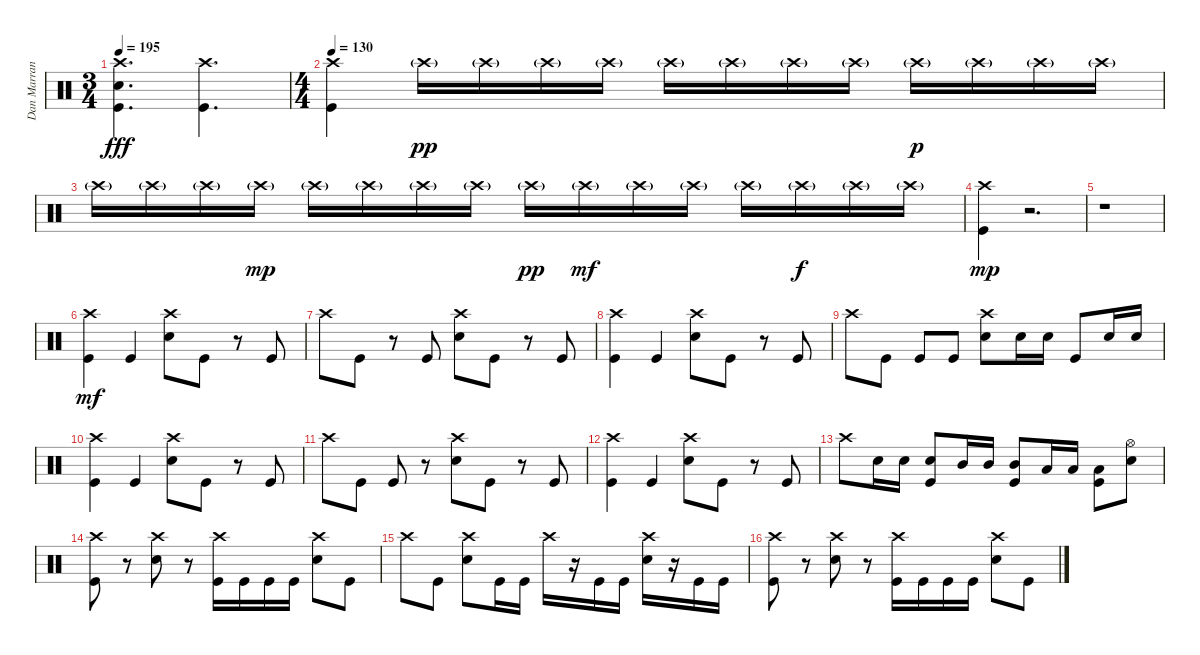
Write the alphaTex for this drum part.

\track ("Dan Marranca" "Dan Marran") {instrument percussion}
\staff {score}
\articulation defaults
\ts (3 4)
\tempo 195
\clef neutral
\ks c
("Crash high (hit)" "Electric Snare (hit)" "Kick (hit)").4{d dy fff} ("Crash high (hit)" "Kick (hit)").4{d} |
\ts (4 4)
\tempo 130
("Crash high (hit)" "Kick (hit)").4 "Crash high (hit)"{g}.16{dy pp} "Crash high (hit)"{g}.16 "Crash high (hit)"{g}.16 "Crash high (hit)"{g}.16 "Crash high (hit)"{g}.16 "Crash high (hit)"{g}.16 "Crash high (hit)"{g}.16 "Crash high (hit)"{g}.16 "Crash high (hit)"{g}.16{dy p} "Crash high (hit)"{g}.16 "Crash high (hit)"{g}.16 "Crash high (hit)"{g}.16 |
"Crash high (hit)"{g}.16 "Crash high (hit)"{g}.16 "Crash high (hit)"{g}.16 "Crash high (hit)"{g}.16{dy mp} "Crash high (hit)"{g}.16 "Crash high (hit)"{g}.16 "Crash high (hit)"{g}.16 "Crash high (hit)"{g}.16 "Crash high (hit)"{g}.16{dy pp} "Crash high (hit)"{g}.16{dy mf} "Crash high (hit)"{g}.16 "Crash high (hit)"{g}.16 "Crash high (hit)"{g}.16 "Crash high (hit)"{g}.16{dy f} "Crash high (hit)"{g}.16 "Crash high (hit)"{g}.16 |
("Crash high (hit)" "Kick (hit)").4{dy mp} r.2{d} |
r.1 |
("Crash high (hit)" "Kick (hit)").4{dy mf} "Kick (hit)".4 ("Crash high (hit)" "Electric Snare (hit)").8 "Kick (hit)".8 r.8 "Kick (hit)".8 |
"Crash high (hit)".8 "Kick (hit)".8 r.8 "Kick (hit)".8 ("Crash high (hit)" "Electric Snare (hit)").8 "Kick (hit)".8 r.8 "Kick (hit)".8 |
("Crash high (hit)" "Kick (hit)").4 "Kick (hit)".4 ("Crash high (hit)" "Electric Snare (hit)").8 "Kick (hit)".8 r.8 "Kick (hit)".8 |
"Crash high (hit)".8 "Kick (hit)".8 "Kick (hit)".8 "Kick (hit)".8 ("Crash high (hit)" "Electric Snare (hit)").8 "Electric Snare (hit)".16 "Electric Snare (hit)".16 "Kick (hit)".8 "Electric Snare (hit)".16 "Electric Snare (hit)".16 |
("Crash high (hit)" "Kick (hit)").4 "Kick (hit)".4 ("Crash high (hit)" "Electric Snare (hit)").8 "Kick (hit)".8 r.8 "Kick (hit)".8 |
"Crash high (hit)".8 "Kick (hit)".8 "Kick (hit)".8 r.8 ("Crash high (hit)" "Electric Snare (hit)").8 "Kick (hit)".8 r.8 "Kick (hit)".8 |
("Crash high (hit)" "Kick (hit)").4 "Kick (hit)".4 ("Crash high (hit)" "Electric Snare (hit)").8 "Kick (hit)".8 r.8 "Kick (hit)".8 |
"Crash high (hit)".8 "Electric Snare (hit)".16 "Electric Snare (hit)".16 ("Electric Snare (hit)" "Kick (hit)").8 "Mid Tom (hit)".16 "Mid Tom (hit)".16 ("Mid Tom (hit)" "Kick (hit)").8 "Low Tom (hit)".16 "Low Tom (hit)".16 ("Low Tom (hit)" "Kick (hit)").8 ("Hi-Hat (open)" "Electric Snare (hit)").8 |
("Crash high (hit)" "Kick (hit)").8 r.8 ("Crash high (hit)" "Electric Snare (hit)").8 r.8 ("Crash high (hit)" "Kick (hit)").16 "Kick (hit)".16 "Kick (hit)".16 "Kick (hit)".16 ("Crash high (hit)" "Electric Snare (hit)").8 "Kick (hit)".8 |
"Crash high (hit)".8 "Kick (hit)".8 ("Crash high (hit)" "Electric Snare (hit)").8 "Kick (hit)".16 "Kick (hit)".16 "Crash high (hit)".16 r.16 "Kick (hit)".16 "Kick (hit)".16 ("Crash high (hit)" "Electric Snare (hit)").16 r.16 "Kick (hit)".16 "Kick (hit)".16 |
("Crash high (hit)" "Kick (hit)").8 r.8 ("Crash high (hit)" "Electric Snare (hit)").8 r.8 ("Crash high (hit)" "Kick (hit)").16 "Kick (hit)".16 "Kick (hit)".16 "Kick (hit)".16 ("Crash high (hit)" "Electric Snare (hit)").8 "Kick (hit)".8
